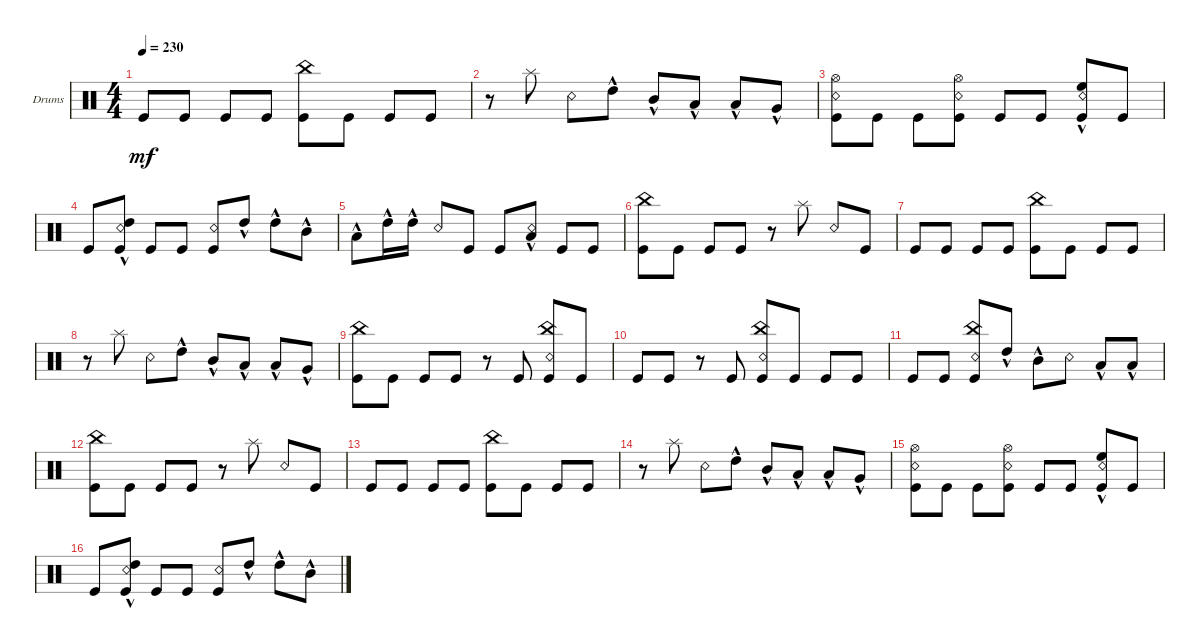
\bracketExtendMode groupsimilarinstruments
\firstSystemTrackNameOrientation horizontal
\otherSystemsTrackNameOrientation horizontal
\track ("Drumkit" "Drums") {mute instrument percussion}
\staff {score}
\articulation defaults
\ts (4 4)
\tempo 230
\clef neutral
\ks c "Kick (hit)".8{dy mf} "Kick (hit)".8 "Kick (hit)".8 "Kick (hit)".8
("China (hit)" "Kick (hit)").8 "Kick (hit)".8 "Kick (hit)".8 "Kick (hit)".8 |
r.8 "Splash (hit)".8 "Snare (rim shot)".8 "High Tom (hit)"{hac}.8 "Mid Tom (hit)"{hac}.8 "Low Tom (hit)"{hac}.8 "Low Tom (hit)"{hac}.8 "Very Low Tom (hit)"{hac}.8 |
("Kick (hit)" "Hi-Hat (open)" "Snare (rim shot)").8 "Kick (hit)".8 "Kick (hit)".8 ("Kick (hit)" "Snare (rim shot)" "Hi-Hat (open)").8 "Kick (hit)".8 "Kick (hit)".8 ("Kick (hit)" "Snare (rim shot)" "High Floor Tom (hit)"{hac}).8 "Kick (hit)".8 |
"Kick (hit)".8 ("Kick (hit)" "Snare (rim shot)" "High Tom (hit)"{hac}).8 "Kick (hit)".8 "Kick (hit)".8 ("Kick (hit)" "Snare (rim shot)").8 "High Tom (hit)"{hac}.8 "High Tom (hit)"{hac}.8 "Mid Tom (hit)"{hac}.8 |
"Low Tom (hit)"{hac}.8 "High Tom (hit)"{hac}.16 "High Tom (hit)"{hac}.16 "Snare (rim shot)".8 "Kick (hit)".8 "Kick (hit)".8 ("Low Tom (hit)"{hac} "Snare (rim shot)").8 "Kick (hit)".8 "Kick (hit)".8 |
("Kick (hit)" "China (hit)").8 "Kick (hit)".8 "Kick (hit)".8 "Kick (hit)".8 r.8 "Splash (hit)".8 "Snare (rim shot)".8 "Kick (hit)".8 |
"Kick (hit)".8 "Kick (hit)".8 "Kick (hit)".8 "Kick (hit)".8 ("China (hit)" "Kick (hit)").8 "Kick (hit)".8 "Kick (hit)".8 "Kick (hit)".8 |
r.8 "Splash (hit)".8 "Snare (rim shot)".8 "High Tom (hit)"{hac}.8 "Mid Tom (hit)"{hac}.8 "Low Tom (hit)"{hac}.8 "Low Tom (hit)"{hac}.8 "Very Low Tom (hit)"{hac}.8 |
("Kick (hit)" "China (hit)").8 "Kick (hit)".8 "Kick (hit)".8 "Kick (hit)".8 r.8 "Kick (hit)".8 ("Kick (hit)" "Snare (rim shot)" "China (hit)").8 "Kick (hit)".8 |
"Kick (hit)".8 "Kick (hit)".8 r.8 "Kick (hit)".8 ("Kick (hit)" "China (hit)" "Snare (rim shot)").8 "Kick (hit)".8 "Kick (hit)".8 "Kick (hit)".8 |
"Kick (hit)".8 "Kick (hit)".8 ("Kick (hit)" "Snare (rim shot)" "China (hit)").8 "High Tom (hit)"{hac}.8 "Mid Tom (hit)"{hac}.8 "Snare (rim shot)".8 "Low Tom (hit)"{hac}.8 "Low Tom (hit)"{hac}.8 |
("Kick (hit)" "China (hit)").8 "Kick (hit)".8 "Kick (hit)".8 "Kick (hit)".8 r.8 "Splash (hit)".8 "Snare (rim shot)".8 "Kick (hit)".8 |
"Kick (hit)".8 "Kick (hit)".8 "Kick (hit)".8 "Kick (hit)".8 ("China (hit)" "Kick (hit)").8 "Kick (hit)".8 "Kick (hit)".8 "Kick (hit)".8 |
r.8 "Splash (hit)".8 "Snare (rim shot)".8 "High Tom (hit)"{hac}.8 "Mid Tom (hit)"{hac}.8 "Low Tom (hit)"{hac}.8 "Low Tom (hit)"{hac}.8 "Very Low Tom (hit)"{hac}.8 |
("Kick (hit)" "Hi-Hat (open)" "Snare (rim shot)").8 "Kick (hit)".8 "Kick (hit)".8 ("Kick (hit)" "Snare (rim shot)" "Hi-Hat (open)").8 "Kick (hit)".8 "Kick (hit)".8 ("Kick (hit)" "Snare (rim shot)" "High Floor Tom (hit)"{hac}).8 "Kick (hit)".8 |
"Kick (hit)".8 ("Kick (hit)" "Snare (rim shot)" "High Tom (hit)"{hac}).8 "Kick (hit)".8 "Kick (hit)".8 ("Kick (hit)" "Snare (rim shot)").8 "High Tom (hit)"{hac}.8 "High Tom (hit)"{hac}.8 "Mid Tom (hit)"{hac}.8
